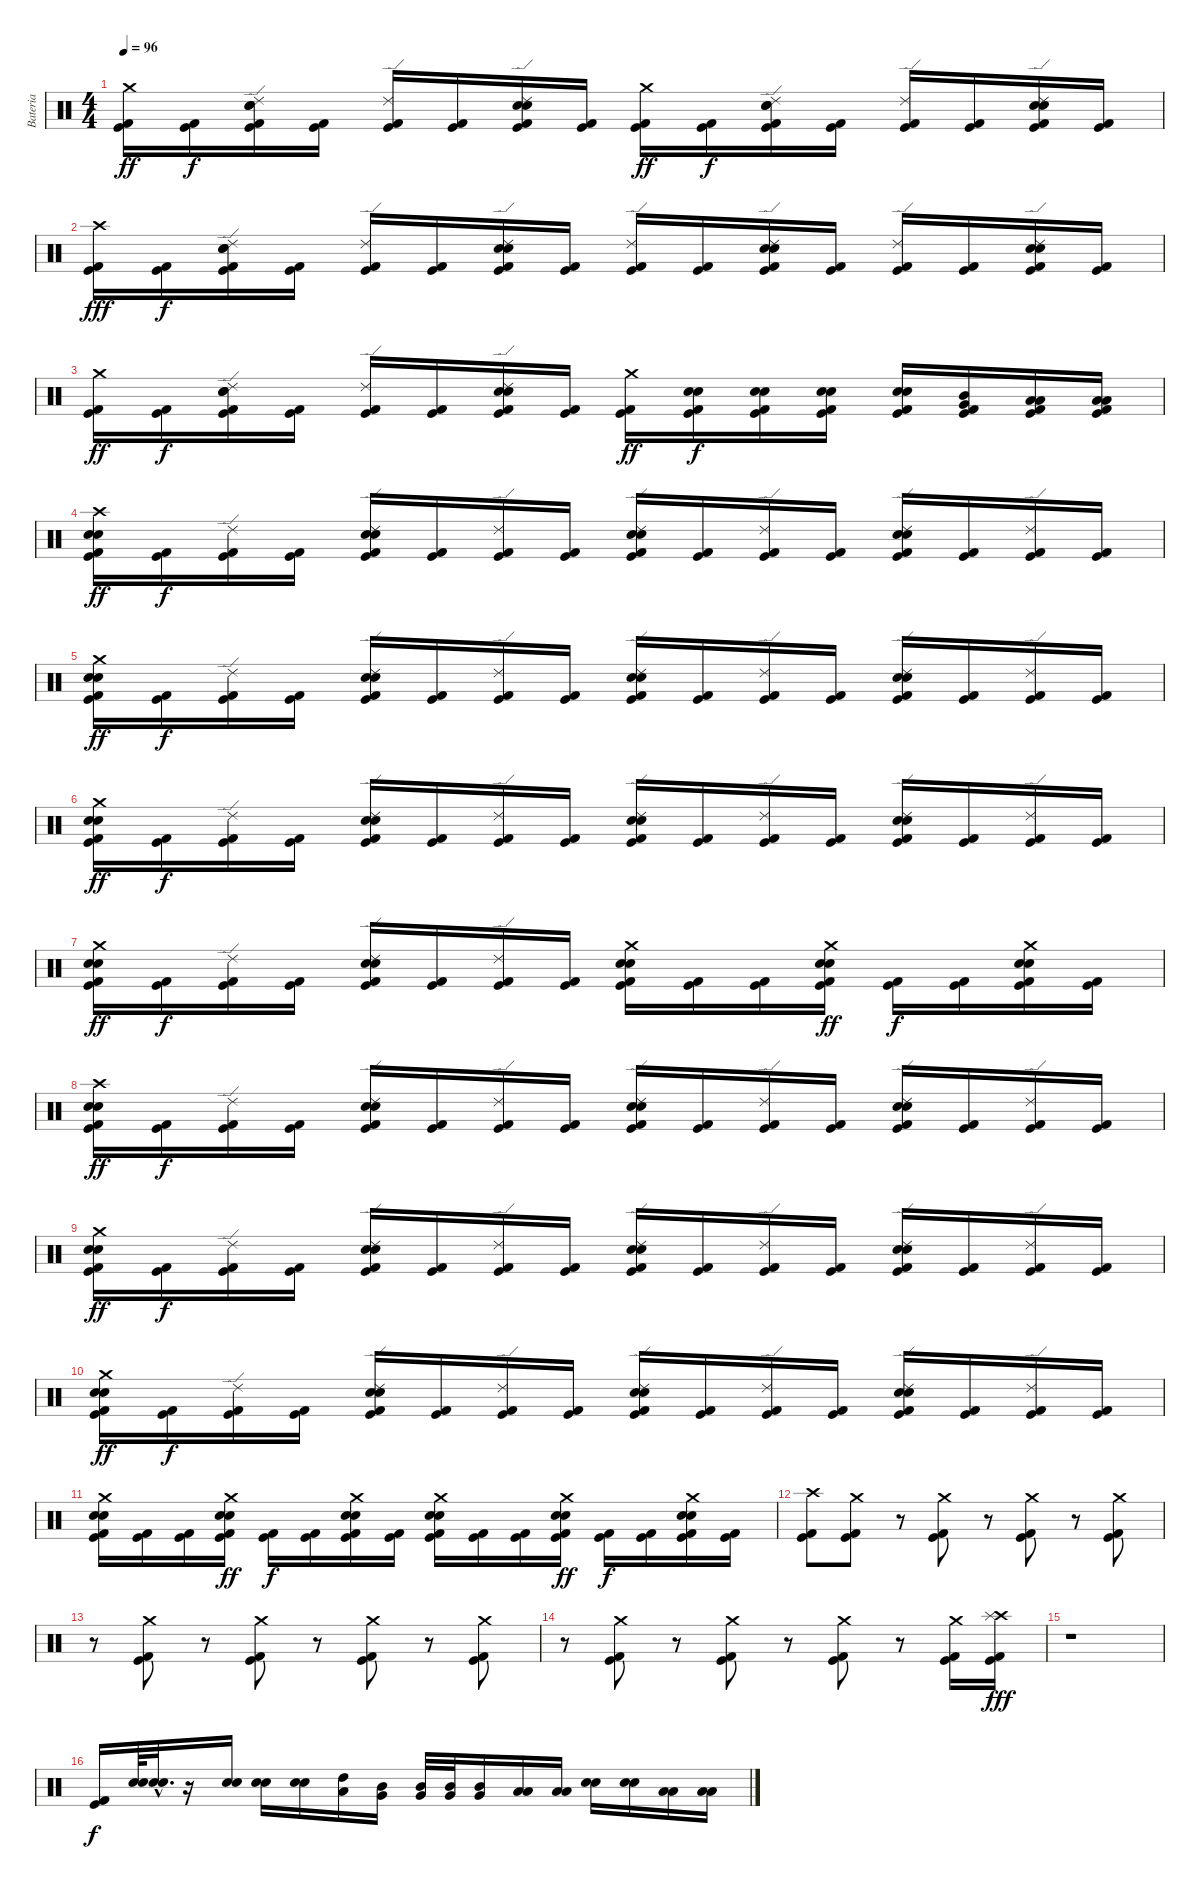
\track ("Bateria" "Bateria") {instrument percussion}
\staff {score}
\articulation defaults
\ts (4 4)
\tempo 96
\clef neutral
\ks c
("Crash medium (hit)" "Kick (hit) 2" "Kick (hit)").16{dy ff} ("Kick (hit) 2" "Kick (hit)").16{dy f} ("Ride (edge) 2" "Electric Snare (hit)" "Snare (hit) 2" "Kick (hit) 2" "Kick (hit)").16 ("Kick (hit) 2" "Kick (hit)").16 ("Ride (edge) 2" "Kick (hit) 2" "Kick (hit)").16 ("Kick (hit) 2" "Kick (hit)").16 ("Ride (edge) 2" "Electric Snare (hit)" "Snare (hit) 2" "Kick (hit) 2" "Kick (hit)").16 ("Kick (hit) 2" "Kick (hit)").16 ("Crash medium (hit)" "Kick (hit) 2" "Kick (hit)").16{dy ff} ("Kick (hit) 2" "Kick (hit)").16{dy f} ("Ride (edge) 2" "Electric Snare (hit)" "Snare (hit) 2" "Kick (hit) 2" "Kick (hit)").16 ("Kick (hit) 2" "Kick (hit)").16 ("Ride (edge) 2" "Kick (hit) 2" "Kick (hit)").16 ("Kick (hit) 2" "Kick (hit)").16 ("Ride (edge) 2" "Electric Snare (hit)" "Snare (hit) 2" "Kick (hit) 2" "Kick (hit)").16 ("Kick (hit) 2" "Kick (hit)").16 |
("Crash high (hit)" "Kick (hit) 2" "Kick (hit)").16{dy fff} ("Kick (hit) 2" "Kick (hit)").16{dy f} ("Ride (edge) 2" "Electric Snare (hit)" "Snare (hit) 2" "Kick (hit) 2" "Kick (hit)").16 ("Kick (hit) 2" "Kick (hit)").16 ("Ride (edge) 2" "Kick (hit) 2" "Kick (hit)").16 ("Kick (hit) 2" "Kick (hit)").16 ("Ride (edge) 2" "Electric Snare (hit)" "Snare (hit) 2" "Kick (hit) 2" "Kick (hit)").16 ("Kick (hit) 2" "Kick (hit)").16 ("Ride (edge) 2" "Kick (hit) 2" "Kick (hit)").16 ("Kick (hit) 2" "Kick (hit)").16 ("Ride (edge) 2" "Electric Snare (hit)" "Snare (hit) 2" "Kick (hit) 2" "Kick (hit)").16 ("Kick (hit) 2" "Kick (hit)").16 ("Ride (edge) 2" "Kick (hit) 2" "Kick (hit)").16 ("Kick (hit) 2" "Kick (hit)").16 ("Ride (edge) 2" "Electric Snare (hit)" "Snare (hit) 2" "Kick (hit) 2" "Kick (hit)").16 ("Kick (hit) 2" "Kick (hit)").16 |
("Crash medium (hit)" "Kick (hit) 2" "Kick (hit)").16{dy ff} ("Kick (hit) 2" "Kick (hit)").16{dy f} ("Ride (edge) 2" "Electric Snare (hit)" "Snare (hit) 2" "Kick (hit) 2" "Kick (hit)").16 ("Kick (hit) 2" "Kick (hit)").16 ("Ride (edge) 2" "Kick (hit) 2" "Kick (hit)").16 ("Kick (hit) 2" "Kick (hit)").16 ("Ride (edge) 2" "Electric Snare (hit)" "Snare (hit) 2" "Kick (hit) 2" "Kick (hit)").16 ("Kick (hit) 2" "Kick (hit)").16 ("Crash medium (hit)" "Kick (hit) 2" "Kick (hit)").16{dy ff} ("Electric Snare (hit)" "Snare (hit) 2" "Kick (hit) 2" "Kick (hit)").16{dy f} ("Electric Snare (hit)" "Snare (hit) 2" "Kick (hit) 2" "Kick (hit)").16 ("Electric Snare (hit)" "Snare (hit) 2" "Kick (hit) 2" "Kick (hit)").16 ("Electric Snare (hit)" "Snare (hit) 2" "Kick (hit) 2" "Kick (hit)").16 ("Mid Tom (hit)" "Very Low Tom (hit)" "Kick (hit) 2" "Kick (hit)").16 ("Low Tom (hit)" "Low Floor Tom (hit)" "Kick (hit) 2" "Kick (hit)").16 ("Low Tom (hit)" "Low Floor Tom (hit)" "Kick (hit) 2" "Kick (hit)").16 |
("Crash high (hit)" "Electric Snare (hit)" "Snare (hit) 2" "Kick (hit) 2" "Kick (hit)").16{dy ff} ("Kick (hit) 2" "Kick (hit)").16{dy f} ("Ride (edge) 2" "Kick (hit) 2" "Kick (hit)").16 ("Kick (hit) 2" "Kick (hit)").16 ("Ride (edge) 2" "Electric Snare (hit)" "Snare (hit) 2" "Kick (hit) 2" "Kick (hit)").16 ("Kick (hit) 2" "Kick (hit)").16 ("Ride (edge) 2" "Kick (hit) 2" "Kick (hit)").16 ("Kick (hit) 2" "Kick (hit)").16 ("Ride (edge) 2" "Electric Snare (hit)" "Snare (hit) 2" "Kick (hit) 2" "Kick (hit)").16 ("Kick (hit) 2" "Kick (hit)").16 ("Ride (edge) 2" "Kick (hit) 2" "Kick (hit)").16 ("Kick (hit) 2" "Kick (hit)").16 ("Ride (edge) 2" "Electric Snare (hit)" "Snare (hit) 2" "Kick (hit) 2" "Kick (hit)").16 ("Kick (hit) 2" "Kick (hit)").16 ("Ride (edge) 2" "Kick (hit) 2" "Kick (hit)").16 ("Kick (hit) 2" "Kick (hit)").16 |
("Crash medium (hit)" "Electric Snare (hit)" "Snare (hit) 2" "Kick (hit) 2" "Kick (hit)").16{dy ff} ("Kick (hit) 2" "Kick (hit)").16{dy f} ("Ride (edge) 2" "Kick (hit) 2" "Kick (hit)").16 ("Kick (hit) 2" "Kick (hit)").16 ("Ride (edge) 2" "Electric Snare (hit)" "Snare (hit) 2" "Kick (hit) 2" "Kick (hit)").16 ("Kick (hit) 2" "Kick (hit)").16 ("Ride (edge) 2" "Kick (hit) 2" "Kick (hit)").16 ("Kick (hit) 2" "Kick (hit)").16 ("Ride (edge) 2" "Electric Snare (hit)" "Snare (hit) 2" "Kick (hit) 2" "Kick (hit)").16 ("Kick (hit) 2" "Kick (hit)").16 ("Ride (edge) 2" "Kick (hit) 2" "Kick (hit)").16 ("Kick (hit) 2" "Kick (hit)").16 ("Ride (edge) 2" "Electric Snare (hit)" "Snare (hit) 2" "Kick (hit) 2" "Kick (hit)").16 ("Kick (hit) 2" "Kick (hit)").16 ("Ride (edge) 2" "Kick (hit) 2" "Kick (hit)").16 ("Kick (hit) 2" "Kick (hit)").16 |
("Crash medium (hit)" "Electric Snare (hit)" "Snare (hit) 2" "Kick (hit) 2" "Kick (hit)").16{dy ff} ("Kick (hit) 2" "Kick (hit)").16{dy f} ("Ride (edge) 2" "Kick (hit) 2" "Kick (hit)").16 ("Kick (hit) 2" "Kick (hit)").16 ("Ride (edge) 2" "Electric Snare (hit)" "Snare (hit) 2" "Kick (hit) 2" "Kick (hit)").16 ("Kick (hit) 2" "Kick (hit)").16 ("Ride (edge) 2" "Kick (hit) 2" "Kick (hit)").16 ("Kick (hit) 2" "Kick (hit)").16 ("Ride (edge) 2" "Electric Snare (hit)" "Snare (hit) 2" "Kick (hit) 2" "Kick (hit)").16 ("Kick (hit) 2" "Kick (hit)").16 ("Ride (edge) 2" "Kick (hit) 2" "Kick (hit)").16 ("Kick (hit) 2" "Kick (hit)").16 ("Ride (edge) 2" "Electric Snare (hit)" "Snare (hit) 2" "Kick (hit) 2" "Kick (hit)").16 ("Kick (hit) 2" "Kick (hit)").16 ("Ride (edge) 2" "Kick (hit) 2" "Kick (hit)").16 ("Kick (hit) 2" "Kick (hit)").16 |
("Crash medium (hit)" "Electric Snare (hit)" "Snare (hit) 2" "Kick (hit) 2" "Kick (hit)").16{dy ff} ("Kick (hit) 2" "Kick (hit)").16{dy f} ("Ride (edge) 2" "Kick (hit) 2" "Kick (hit)").16 ("Kick (hit) 2" "Kick (hit)").16 ("Ride (edge) 2" "Electric Snare (hit)" "Snare (hit) 2" "Kick (hit) 2" "Kick (hit)").16 ("Kick (hit) 2" "Kick (hit)").16 ("Ride (edge) 2" "Kick (hit) 2" "Kick (hit)").16 ("Kick (hit) 2" "Kick (hit)").16 ("Crash medium (hit)" "Electric Snare (hit)" "Snare (hit) 2" "Kick (hit) 2" "Kick (hit)").16 ("Kick (hit) 2" "Kick (hit)").16 ("Kick (hit) 2" "Kick (hit)").16 ("Crash medium (hit)" "Electric Snare (hit)" "Snare (hit) 2" "Kick (hit) 2" "Kick (hit)").16{dy ff} ("Kick (hit) 2" "Kick (hit)").16{dy f} ("Kick (hit) 2" "Kick (hit)").16 ("Crash medium (hit)" "Electric Snare (hit)" "Snare (hit) 2" "Kick (hit) 2" "Kick (hit)").16 ("Kick (hit) 2" "Kick (hit)").16 |
("Crash high (hit)" "Electric Snare (hit)" "Snare (hit) 2" "Kick (hit) 2" "Kick (hit)").16{dy ff} ("Kick (hit) 2" "Kick (hit)").16{dy f} ("Ride (edge) 2" "Kick (hit) 2" "Kick (hit)").16 ("Kick (hit) 2" "Kick (hit)").16 ("Ride (edge) 2" "Electric Snare (hit)" "Snare (hit) 2" "Kick (hit) 2" "Kick (hit)").16 ("Kick (hit) 2" "Kick (hit)").16 ("Ride (edge) 2" "Kick (hit) 2" "Kick (hit)").16 ("Kick (hit) 2" "Kick (hit)").16 ("Ride (edge) 2" "Electric Snare (hit)" "Snare (hit) 2" "Kick (hit) 2" "Kick (hit)").16 ("Kick (hit) 2" "Kick (hit)").16 ("Ride (edge) 2" "Kick (hit) 2" "Kick (hit)").16 ("Kick (hit) 2" "Kick (hit)").16 ("Ride (edge) 2" "Electric Snare (hit)" "Snare (hit) 2" "Kick (hit) 2" "Kick (hit)").16 ("Kick (hit) 2" "Kick (hit)").16 ("Ride (edge) 2" "Kick (hit) 2" "Kick (hit)").16 ("Kick (hit) 2" "Kick (hit)").16 |
("Crash medium (hit)" "Electric Snare (hit)" "Snare (hit) 2" "Kick (hit) 2" "Kick (hit)").16{dy ff} ("Kick (hit) 2" "Kick (hit)").16{dy f} ("Ride (edge) 2" "Kick (hit) 2" "Kick (hit)").16 ("Kick (hit) 2" "Kick (hit)").16 ("Ride (edge) 2" "Electric Snare (hit)" "Snare (hit) 2" "Kick (hit) 2" "Kick (hit)").16 ("Kick (hit) 2" "Kick (hit)").16 ("Ride (edge) 2" "Kick (hit) 2" "Kick (hit)").16 ("Kick (hit) 2" "Kick (hit)").16 ("Ride (edge) 2" "Electric Snare (hit)" "Snare (hit) 2" "Kick (hit) 2" "Kick (hit)").16 ("Kick (hit) 2" "Kick (hit)").16 ("Ride (edge) 2" "Kick (hit) 2" "Kick (hit)").16 ("Kick (hit) 2" "Kick (hit)").16 ("Ride (edge) 2" "Electric Snare (hit)" "Snare (hit) 2" "Kick (hit) 2" "Kick (hit)").16 ("Kick (hit) 2" "Kick (hit)").16 ("Ride (edge) 2" "Kick (hit) 2" "Kick (hit)").16 ("Kick (hit) 2" "Kick (hit)").16 |
("Crash medium (hit)" "Electric Snare (hit)" "Snare (hit) 2" "Kick (hit) 2" "Kick (hit)").16{dy ff} ("Kick (hit) 2" "Kick (hit)").16{dy f} ("Ride (edge) 2" "Kick (hit) 2" "Kick (hit)").16 ("Kick (hit) 2" "Kick (hit)").16 ("Ride (edge) 2" "Electric Snare (hit)" "Snare (hit) 2" "Kick (hit) 2" "Kick (hit)").16 ("Kick (hit) 2" "Kick (hit)").16 ("Ride (edge) 2" "Kick (hit) 2" "Kick (hit)").16 ("Kick (hit) 2" "Kick (hit)").16 ("Ride (edge) 2" "Electric Snare (hit)" "Snare (hit) 2" "Kick (hit) 2" "Kick (hit)").16 ("Kick (hit) 2" "Kick (hit)").16 ("Ride (edge) 2" "Kick (hit) 2" "Kick (hit)").16 ("Kick (hit) 2" "Kick (hit)").16 ("Ride (edge) 2" "Electric Snare (hit)" "Snare (hit) 2" "Kick (hit) 2" "Kick (hit)").16 ("Kick (hit) 2" "Kick (hit)").16 ("Ride (edge) 2" "Kick (hit) 2" "Kick (hit)").16 ("Kick (hit) 2" "Kick (hit)").16 |
("Crash medium (hit)" "Electric Snare (hit)" "Snare (hit) 2" "Kick (hit) 2" "Kick (hit)").16 ("Kick (hit) 2" "Kick (hit)").16 ("Kick (hit) 2" "Kick (hit)").16 ("Crash medium (hit)" "Electric Snare (hit)" "Snare (hit) 2" "Kick (hit) 2" "Kick (hit)").16{dy ff} ("Kick (hit) 2" "Kick (hit)").16{dy f} ("Kick (hit) 2" "Kick (hit)").16 ("Crash medium (hit)" "Electric Snare (hit)" "Snare (hit) 2" "Kick (hit) 2" "Kick (hit)").16 ("Kick (hit) 2" "Kick (hit)").16 ("Crash medium (hit)" "Electric Snare (hit)" "Snare (hit) 2" "Kick (hit) 2" "Kick (hit)").16 ("Kick (hit) 2" "Kick (hit)").16 ("Kick (hit) 2" "Kick (hit)").16 ("Crash medium (hit)" "Electric Snare (hit)" "Snare (hit) 2" "Kick (hit) 2" "Kick (hit)").16{dy ff} ("Kick (hit) 2" "Kick (hit)").16{dy f} ("Kick (hit) 2" "Kick (hit)").16 ("Crash medium (hit)" "Electric Snare (hit)" "Snare (hit) 2" "Kick (hit) 2" "Kick (hit)").16 ("Kick (hit) 2" "Kick (hit)").16 |
("Crash high (hit)" "Kick (hit) 2" "Kick (hit)").8 ("Crash medium (hit)" "Kick (hit) 2" "Kick (hit)").8 r.8 ("Crash medium (hit)" "Kick (hit) 2" "Kick (hit)").8 r.8 ("Crash medium (hit)" "Kick (hit) 2" "Kick (hit)").8 r.8 ("Crash medium (hit)" "Kick (hit) 2" "Kick (hit)").8 |
r.8 ("Crash medium (hit)" "Kick (hit) 2" "Kick (hit)").8 r.8 ("Crash medium (hit)" "Kick (hit) 2" "Kick (hit)").8 r.8 ("Crash medium (hit)" "Kick (hit) 2" "Kick (hit)").8 r.8 ("Crash medium (hit)" "Kick (hit) 2" "Kick (hit)").8 |
r.8 ("Crash medium (hit)" "Kick (hit) 2" "Kick (hit)").8 r.8 ("Crash medium (hit)" "Kick (hit) 2" "Kick (hit)").8 r.8 ("Crash medium (hit)" "Kick (hit) 2" "Kick (hit)").8 r.8 ("Crash medium (hit)" "Kick (hit) 2" "Kick (hit)").16 ("Crash high (hit)" "Splash (hit)" "Kick (hit) 2" "Kick (hit)").16{dy fff} |
r.1 |
("Kick (hit) 2" "Kick (hit)").16{dy f} ("Electric Snare (hit)" "Snare (hit) 2").64 ("Electric Snare (hit)"{hac} "Snare (hit) 2"{hac}).32{d} r.16 ("Electric Snare (hit)" "Snare (hit) 2").16 ("Electric Snare (hit)" "Snare (hit) 2").16 ("Electric Snare (hit)" "Snare (hit) 2").16 ("High Tom (hit)" "Low Tom (hit)").16 ("Mid Tom (hit)" "Very Low Tom (hit)").16 ("Mid Tom (hit)" "Very Low Tom (hit)").32 ("Mid Tom (hit)" "Very Low Tom (hit)").32 ("Mid Tom (hit)" "Very Low Tom (hit)").16 ("Low Tom (hit)" "Low Floor Tom (hit)").16 ("Low Tom (hit)" "Low Floor Tom (hit)").16 ("Electric Snare (hit)" "Snare (hit) 2").16 ("Electric Snare (hit)" "Snare (hit) 2").16 ("Low Tom (hit)" "Low Floor Tom (hit)").16 ("Low Tom (hit)" "Low Floor Tom (hit)").16
